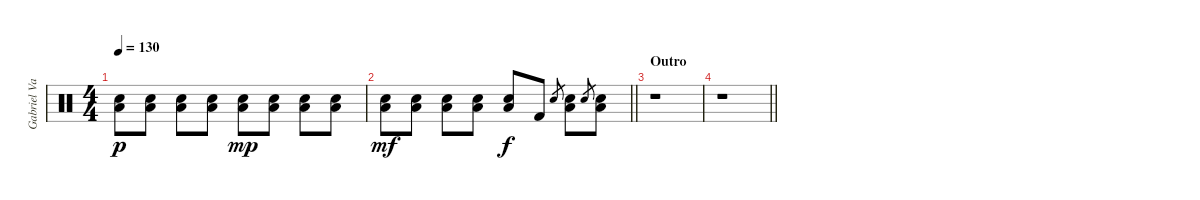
\track ("Gabriel Valerio" "Gabriel Va") {instrument percussion}
\staff {score}
\articulation defaults
\ts (4 4)
\tempo 130
\clef neutral
\ks c
("Low Tom (hit)" "Snare (hit) 2").8{dy p} ("Low Tom (hit)" "Snare (hit) 2").8 ("Low Tom (hit)" "Snare (hit) 2").8 ("Low Tom (hit)" "Snare (hit) 2").8 ("Low Tom (hit)" "Snare (hit) 2").8{dy mp} ("Low Tom (hit)" "Snare (hit) 2").8 ("Low Tom (hit)" "Snare (hit) 2").8 ("Low Tom (hit)" "Snare (hit) 2").8 |
\barLineRight lightlight
("Low Tom (hit)" "Snare (hit) 2").8{dy mf} ("Low Tom (hit)" "Snare (hit) 2").8 ("Low Tom (hit)" "Snare (hit) 2").8 ("Low Tom (hit)" "Snare (hit) 2").8 ("Low Tom (hit)" "Snare (hit) 2").8{dy f} "Kick (hit) 2".8 "Snare (hit) 2".8{gr} ("Low Tom (hit)" "Snare (hit) 2").8 "Snare (hit) 2".8{gr} ("Low Tom (hit)" "Snare (hit) 2").8 |
\section ("" "Outro")
r.1 |
\barLineRight lightlight
r.1
